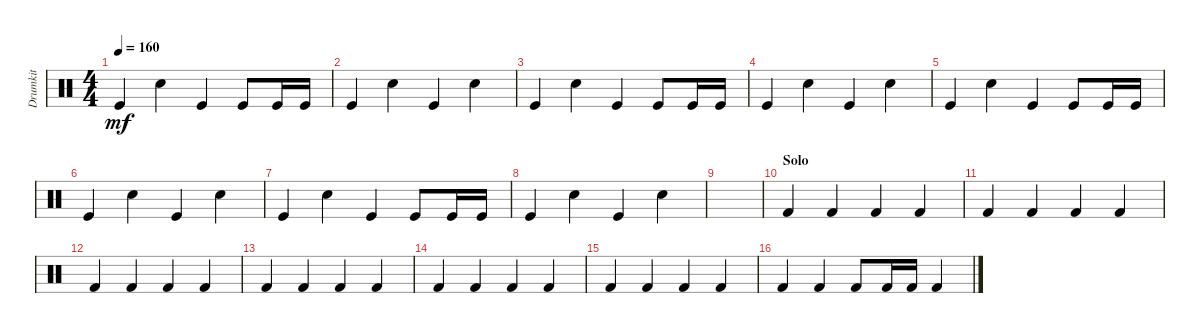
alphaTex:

\track ("Drumkit" "Drumkit") {instrument percussion}
\staff {score}
\articulation defaults
\ts (4 4)
\tempo 160
\clef neutral
\ks c "Kick (hit)".4{dy mf} "Hand Clap (hit)".4 "Kick (hit)".4 "Kick (hit)".8 "Kick (hit)".16 "Kick (hit)".16
|
"Kick (hit)".4 "Hand Clap (hit)".4 "Kick (hit)".4 "Hand Clap (hit)".4 |
"Kick (hit)".4 "Hand Clap (hit)".4 "Kick (hit)".4 "Kick (hit)".8 "Kick (hit)".16 "Kick (hit)".16 |
"Kick (hit)".4 "Hand Clap (hit)".4 "Kick (hit)".4 "Hand Clap (hit)".4 |
"Kick (hit)".4 "Hand Clap (hit)".4 "Kick (hit)".4 "Kick (hit)".8 "Kick (hit)".16 "Kick (hit)".16 |
"Kick (hit)".4 "Hand Clap (hit)".4 "Kick (hit)".4 "Hand Clap (hit)".4 |
"Kick (hit)".4 "Hand Clap (hit)".4 "Kick (hit)".4 "Kick (hit)".8 "Kick (hit)".16 "Kick (hit)".16 |
"Kick (hit)".4 "Hand Clap (hit)".4 "Kick (hit)".4 "Hand Clap (hit)".4 |
|
\section ("" "Solo")
"Kick (hit) 2".4 "Kick (hit) 2".4 "Kick (hit) 2".4 "Kick (hit) 2".4 |
"Kick (hit) 2".4 "Kick (hit) 2".4 "Kick (hit) 2".4 "Kick (hit) 2".4 |
"Kick (hit) 2".4 "Kick (hit) 2".4 "Kick (hit) 2".4 "Kick (hit) 2".4 |
"Kick (hit) 2".4 "Kick (hit) 2".4 "Kick (hit) 2".4 "Kick (hit) 2".4 |
"Kick (hit) 2".4 "Kick (hit) 2".4 "Kick (hit) 2".4 "Kick (hit) 2".4 |
"Kick (hit) 2".4 "Kick (hit) 2".4 "Kick (hit) 2".4 "Kick (hit) 2".4 |
"Kick (hit) 2".4 "Kick (hit) 2".4 "Kick (hit) 2".8 "Kick (hit) 2".16 "Kick (hit) 2".16 "Kick (hit) 2".4
